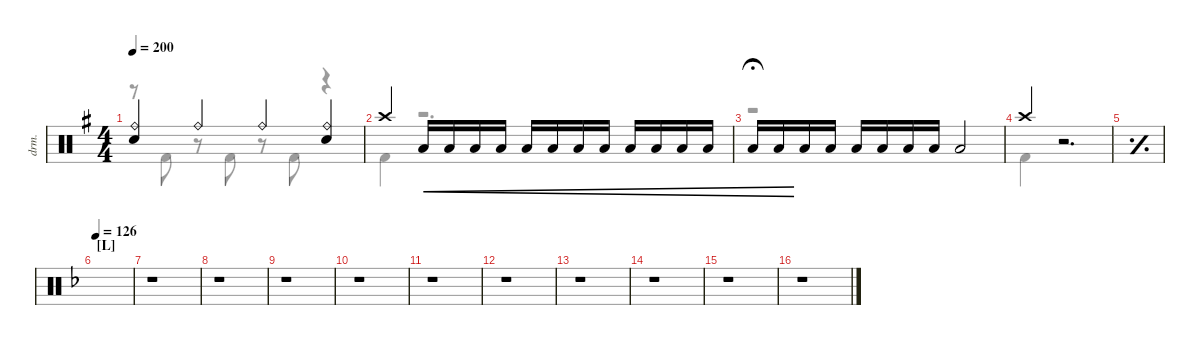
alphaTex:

\defaultSystemsLayout 4
\hideDynamics
\bracketExtendMode nobrackets
\track ("Drums" "drm.") {instrument percussion}
\staff {score}
\articulation defaults
\voice
\ts (4 4)
\tempo 200
\clef neutral
\ks g
("Ride (bell)"{acc forcenatural} "Snare (hit) 2"{acc forcenatural}).4{dy mf} "Ride (bell)"{acc forcenatural}.4 "Ride (bell)"{acc forcenatural}.4 ("Ride (bell)"{acc forcenatural} "Snare (hit) 2"{acc forcenatural}).4 |
"Crash high (hit)"{acc forcenatural}.4 "Low Tom (hit)"{acc forcenatural}.16{cre} "Low Tom (hit)"{acc forcenatural}.16{cre} "Low Tom (hit)"{acc forcenatural}.16{cre} "Low Tom (hit)"{acc forcenatural}.16{cre} "Low Tom (hit)"{acc forcenatural}.16{cre} "Low Tom (hit)"{acc forcenatural}.16{cre} "Low Tom (hit)"{acc forcenatural}.16{cre} "Low Tom (hit)"{acc forcenatural}.16{cre} "Low Tom (hit)"{acc forcenatural}.16{cre} "Low Tom (hit)"{acc forcenatural}.16{cre} "Low Tom (hit)"{acc forcenatural}.16{cre} "Low Tom (hit)"{acc forcenatural}.16{cre} |
"Low Tom (hit)"{acc forcenatural}.16{cre fermata (medium 0.12)} "Low Tom (hit)"{acc forcenatural}.16{cre} "Low Tom (hit)"{acc forcenatural}.16 "Low Tom (hit)"{acc forcenatural}.16 "Low Tom (hit)"{acc forcenatural}.16 "Low Tom (hit)"{acc forcenatural}.16 "Low Tom (hit)"{acc forcenatural}.16 "Low Tom (hit)"{acc forcenatural}.16 "Low Tom (hit)"{acc forcenatural}.2 |
"Crash high (hit)"{acc forcenatural}.4 r.2{d} |
\simile simple
|
\section ("L" "")
\tempo 126
\ks f
|
\simile none
r.1 |
r.1 |
r.1 |
r.1 |
r.1 |
r.1 |
r.1 |
r.1 |
r.1 |
r.1
\voice
\clef neutral
\ottava regular
\simile none
\ks g
r.8{dy mf} "Kick (hit) 2"{acc forcenatural}.8 r.8 "Kick (hit) 2"{acc forcenatural}.8 r.8 "Kick (hit) 2"{acc forcenatural}.8 r.4 |
"Kick (hit) 2"{acc forcenatural}.4 r.2{d} |
r.1{fermata (medium 0.12)} |
"Kick (hit) 2"{acc forcenatural}.4 r.2{d} |
\simile simple
|
\ks f
|
\simile none
|
|
|
|
|
|
|
|
|
